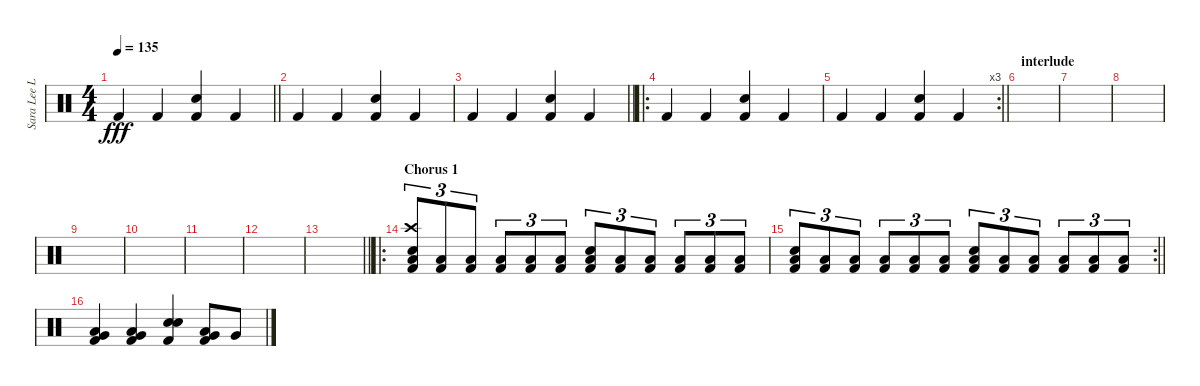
\track ("Sara Lee Lucas" "Sara Lee L") {instrument percussion}
\staff {score}
\articulation defaults
\ts (4 4)
\tempo 135
\clef neutral
\barLineRight lightlight
\ks c "Kick (hit) 2".4{dy fff} "Kick (hit) 2".4
("Snare (hit) 2" "Kick (hit) 2").4 "Kick (hit) 2".4 |
"Kick (hit) 2".4 "Kick (hit) 2".4 ("Snare (hit) 2" "Kick (hit) 2").4 "Kick (hit) 2".4 |
\barLineRight lightlight "Kick (hit) 2".4 "Kick (hit) 2".4
("Snare (hit) 2" "Kick (hit) 2").4 "Kick (hit) 2".4 |
\ro "Kick (hit) 2".4 "Kick (hit) 2".4
("Snare (hit) 2" "Kick (hit) 2").4 "Kick (hit) 2".4 |
\rc 3
\barLineRight lightlight "Kick (hit) 2".4 "Kick (hit) 2".4
("Snare (hit) 2" "Kick (hit) 2").4 "Kick (hit) 2".4 |
\section ("" "interlude")
|
|
|
|
|
|
|
\barLineRight lightlight
|
\ro
\section ("" "Chorus 1")
("Crash high (hit)" "Snare (hit) 2" "Low Tom (hit)" "Kick (hit) 2").8{tu (3 2)} ("Low Tom (hit)" "Kick (hit) 2").8{tu (3 2)} ("Low Tom (hit)" "Kick (hit) 2").8{tu (3 2)} ("Low Tom (hit)" "Kick (hit) 2").8{tu (3 2)} ("Low Tom (hit)" "Kick (hit) 2").8{tu (3 2)} ("Low Tom (hit)" "Kick (hit) 2").8{tu (3 2)} ("Snare (hit) 2" "Low Tom (hit)" "Kick (hit) 2").8{tu (3 2)} ("Low Tom (hit)" "Kick (hit) 2").8{tu (3 2)} ("Low Tom (hit)" "Kick (hit) 2").8{tu (3 2)} ("Low Tom (hit)" "Kick (hit) 2").8{tu (3 2)} ("Low Tom (hit)" "Kick (hit) 2").8{tu (3 2)} ("Low Tom (hit)" "Kick (hit) 2").8{tu (3 2)} |
\rc 2
\barLineRight lightlight
("Snare (hit) 2" "Low Tom (hit)" "Kick (hit) 2").8{tu (3 2)} ("Low Tom (hit)" "Kick (hit) 2").8{tu (3 2)} ("Low Tom (hit)" "Kick (hit) 2").8{tu (3 2)} ("Low Tom (hit)" "Kick (hit) 2").8{tu (3 2)} ("Low Tom (hit)" "Kick (hit) 2").8{tu (3 2)} ("Low Tom (hit)" "Kick (hit) 2").8{tu (3 2)} ("Snare (hit) 2" "Low Tom (hit)" "Kick (hit) 2").8{tu (3 2)} ("Low Tom (hit)" "Kick (hit) 2").8{tu (3 2)} ("Low Tom (hit)" "Kick (hit) 2").8{tu (3 2)} ("Low Tom (hit)" "Kick (hit) 2").8{tu (3 2)} ("Low Tom (hit)" "Kick (hit) 2").8{tu (3 2)} ("Low Tom (hit)" "Kick (hit) 2").8{tu (3 2)} |
("Very Low Tom (hit)" "Low Tom (hit)" "Kick (hit) 2").4 ("Very Low Tom (hit)" "Low Tom (hit)" "Kick (hit) 2").4 ("Snare (hit) 2" "Electric Snare (hit)" "Kick (hit) 2").4 ("Very Low Tom (hit)" "Low Tom (hit)" "Kick (hit) 2").8 "Very Low Tom (hit)".8
